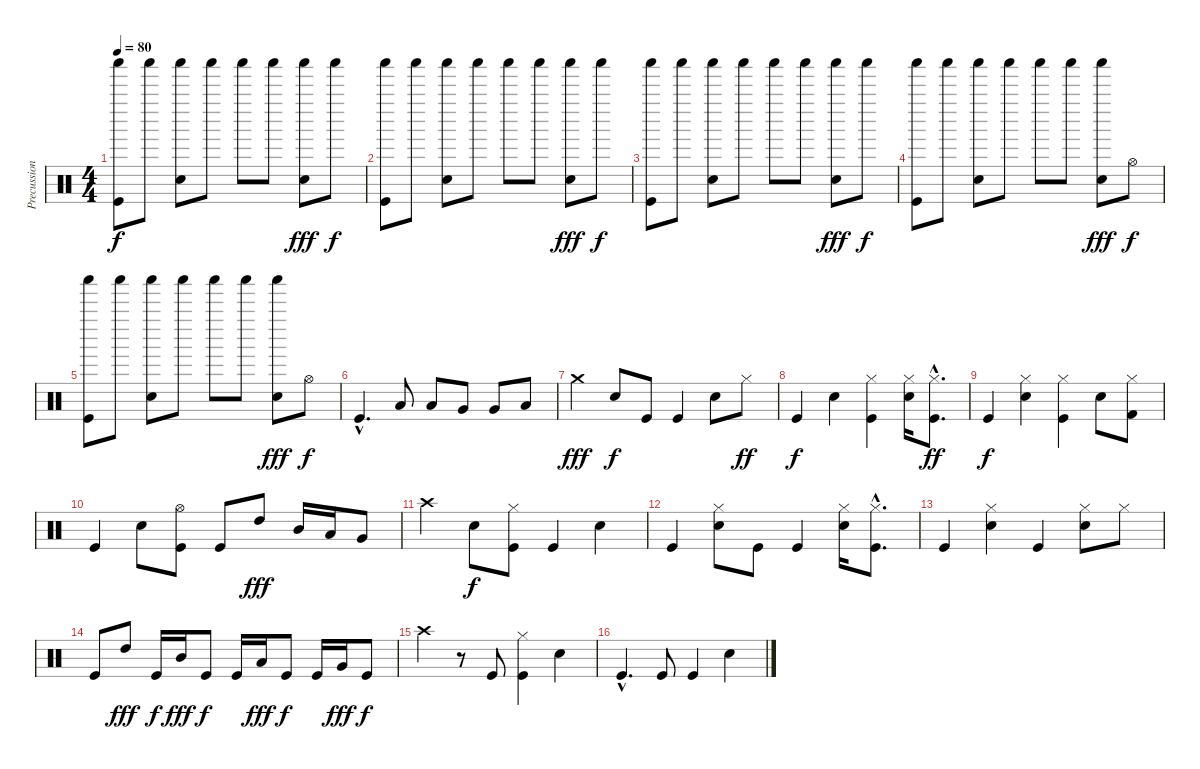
\track ("Precussion" "Precussion") {instrument percussion}
\staff {score}
\articulation defaults
\ts (4 4)
\tempo 80
\clef neutral
\ks c
("Shaker (hit)" "Kick (hit)").8{dy f} "Shaker (hit)".8 ("Shaker (hit)" "Snare (hit)").8 "Shaker (hit)".8 "Shaker (hit)".8 "Shaker (hit)".8 ("Shaker (hit)" "Snare (hit)").8{dy fff} "Shaker (hit)".8{dy f} |
("Shaker (hit)" "Kick (hit)").8 "Shaker (hit)".8 ("Shaker (hit)" "Snare (hit)").8 "Shaker (hit)".8 "Shaker (hit)".8 "Shaker (hit)".8 ("Shaker (hit)" "Snare (hit)").8{dy fff} "Shaker (hit)".8{dy f} |
("Shaker (hit)" "Kick (hit)").8 "Shaker (hit)".8 ("Shaker (hit)" "Snare (hit)").8 "Shaker (hit)".8 "Shaker (hit)".8 "Shaker (hit)".8 ("Shaker (hit)" "Snare (hit)").8{dy fff} "Shaker (hit)".8{dy f} |
("Shaker (hit)" "Kick (hit)").8 "Shaker (hit)".8 ("Shaker (hit)" "Snare (hit)").8 "Shaker (hit)".8 "Shaker (hit)".8 "Shaker (hit)".8 ("Shaker (hit)" "Snare (hit)").8{dy fff} "Hi-Hat (open)".8{dy f} |
("Shaker (hit)" "Kick (hit)").8 "Shaker (hit)".8 ("Shaker (hit)" "Snare (hit)").8 "Shaker (hit)".8 "Shaker (hit)".8 "Shaker (hit)".8 ("Shaker (hit)" "Snare (hit)").8{dy fff} "Hi-Hat (open)".8{dy f} |
"Kick (hit)"{hac}.4{d} "Low Tom (hit)".8 "Low Tom (hit)".8 "Very Low Tom (hit)".8 "Very Low Tom (hit)".8 "Low Floor Tom (hit)".8 |
"Crash medium (hit)".4{dy fff} "Snare (hit) 2".8{dy f} "Kick (hit)".8 "Kick (hit)".4 "Snare (hit) 2".8 "Hi-Hat (closed)".8{dy ff} |
"Kick (hit)".4{dy f} "Snare (hit) 2".4 ("Hi-Hat (closed)" "Kick (hit)").4 ("Hi-Hat (closed)" "Snare (hit) 2").16 ("Hi-Hat (closed)"{hac} "Kick (hit)"{hac}).8{d dy ff} |
"Kick (hit)".4{dy f} ("Hi-Hat (closed)" "Snare (hit) 2").4 ("Hi-Hat (closed)" "Kick (hit)").4 "Snare (hit) 2".8 ("Hi-Hat (closed)" "Kick (hit) 2").8 |
"Kick (hit)".4 "Snare (hit) 2".8 ("Hi-Hat (open)" "Kick (hit)").8 "Kick (hit)".8 "High Tom (hit)".8{dy fff} "Mid Tom (hit)".16 "Low Tom (hit)".16 "Very Low Tom (hit)".8 |
"Crash high (hit)".4 "Snare (hit) 2".8{dy f} ("Hi-Hat (closed)" "Kick (hit)").8 "Kick (hit)".4 "Snare (hit) 2".4 |
"Kick (hit)".4 ("Hi-Hat (closed)" "Snare (hit) 2").8 "Kick (hit)".8 "Kick (hit)".4 ("Hi-Hat (closed)" "Snare (hit) 2").16 ("Hi-Hat (closed)"{hac} "Kick (hit)"{hac}).8{d} |
"Kick (hit)".4 ("Hi-Hat (closed)" "Snare (hit) 2").4 "Kick (hit)".4 ("Hi-Hat (closed)" "Snare (hit) 2").8 "Hi-Hat (closed)".8 |
"Kick (hit)".8{volume 16} "High Tom (hit)".8{dy fff} "Kick (hit)".16{dy f} "Mid Tom (hit)".16{dy fff} "Kick (hit)".8{dy f} "Kick (hit)".16 "Low Tom (hit)".16{dy fff} "Kick (hit)".8{dy f} "Kick (hit)".16 "Very Low Tom (hit)".16{dy fff} "Kick (hit)".8{dy f} |
"Crash high (hit)".4 r.8 "Kick (hit)".8{volume 12} ("Hi-Hat (closed)" "Kick (hit)").4 "Snare (hit)".4 |
"Kick (hit)"{hac}.4{d} "Kick (hit)".8 "Kick (hit)".4 "Snare (hit)".4
